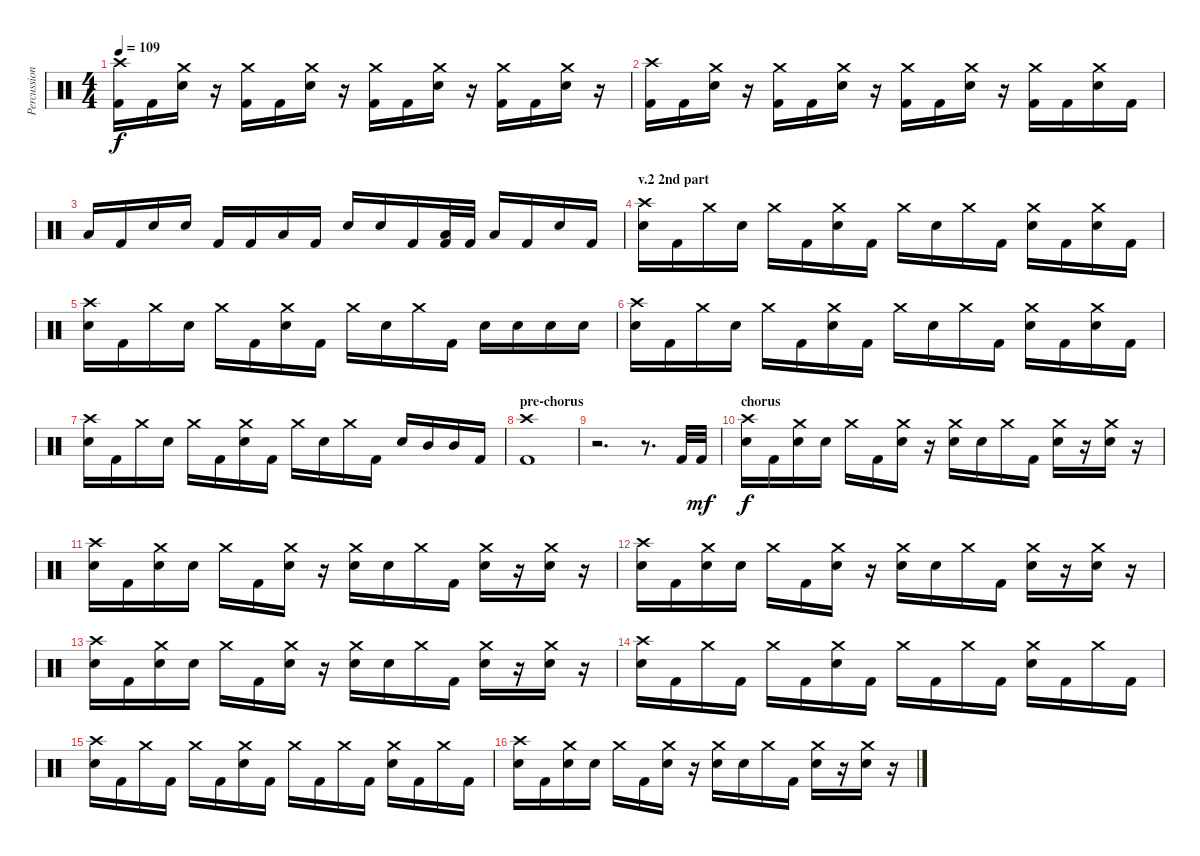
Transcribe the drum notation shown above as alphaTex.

\track ("Percussion" "Percussion") {instrument percussion}
\staff {score}
\articulation defaults
\ts (4 4)
\tempo 109
\clef neutral
\ks c
("Crash high (hit)" "Kick (hit) 2").16{dy f} "Kick (hit) 2".16 ("Crash medium (hit)" "Electric Snare (hit)").16 r.16 ("Crash medium (hit)" "Kick (hit) 2").16 "Kick (hit) 2".16 ("Crash medium (hit)" "Electric Snare (hit)").16 r.16 ("Crash medium (hit)" "Kick (hit) 2").16 "Kick (hit) 2".16 ("Crash medium (hit)" "Electric Snare (hit)").16 r.16 ("Crash medium (hit)" "Kick (hit) 2").16 "Kick (hit) 2".16 ("Crash medium (hit)" "Electric Snare (hit)").16 r.16 |
("Crash high (hit)" "Kick (hit) 2").16 "Kick (hit) 2".16 ("Crash medium (hit)" "Electric Snare (hit)").16 r.16 ("Crash medium (hit)" "Kick (hit) 2").16 "Kick (hit) 2".16 ("Crash medium (hit)" "Electric Snare (hit)").16 r.16 ("Crash medium (hit)" "Kick (hit) 2").16 "Kick (hit) 2".16 ("Crash medium (hit)" "Electric Snare (hit)").16 r.16 ("Crash medium (hit)" "Kick (hit) 2").16 "Kick (hit) 2".16 ("Crash medium (hit)" "Electric Snare (hit)").16 "Kick (hit) 2".16 |
"Low Tom (hit)".16 "Kick (hit) 2".16 "Electric Snare (hit)".16 "Electric Snare (hit)".16 "Kick (hit) 2".16 "Kick (hit) 2".16 "Low Tom (hit)".16 "Kick (hit) 2".16 "Electric Snare (hit)".16 "Electric Snare (hit)".16 "Kick (hit) 2".16 ("Low Tom (hit)" "Kick (hit) 2").32 "Kick (hit) 2".32 "Low Tom (hit)".16 "Kick (hit) 2".16 "Electric Snare (hit)".16 "Kick (hit) 2".16 |
\section ("" "v.2 2nd part")
("Crash high (hit)" "Electric Snare (hit)").16 "Kick (hit) 2".16 "Crash medium (hit)".16 "Electric Snare (hit)".16 "Crash medium (hit)".16 "Kick (hit) 2".16 ("Crash medium (hit)" "Electric Snare (hit)").16 "Kick (hit) 2".16 "Crash medium (hit)".16 "Electric Snare (hit)".16 "Crash medium (hit)".16 "Kick (hit) 2".16 ("Crash medium (hit)" "Electric Snare (hit)").16 "Kick (hit) 2".16 ("Crash medium (hit)" "Electric Snare (hit)").16 "Kick (hit) 2".16 |
("Crash high (hit)" "Electric Snare (hit)").16 "Kick (hit) 2".16 "Crash medium (hit)".16 "Electric Snare (hit)".16 "Crash medium (hit)".16 "Kick (hit) 2".16 ("Crash medium (hit)" "Electric Snare (hit)").16 "Kick (hit) 2".16 "Crash medium (hit)".16 "Electric Snare (hit)".16 "Crash medium (hit)".16 "Kick (hit) 2".16 "Electric Snare (hit)".16 "Electric Snare (hit)".16 "Electric Snare (hit)".16 "Electric Snare (hit)".16 |
("Crash high (hit)" "Electric Snare (hit)").16 "Kick (hit) 2".16 "Crash medium (hit)".16 "Electric Snare (hit)".16 "Crash medium (hit)".16 "Kick (hit) 2".16 ("Crash medium (hit)" "Electric Snare (hit)").16 "Kick (hit) 2".16 "Crash medium (hit)".16 "Electric Snare (hit)".16 "Crash medium (hit)".16 "Kick (hit) 2".16 ("Crash medium (hit)" "Electric Snare (hit)").16 "Kick (hit) 2".16 ("Crash medium (hit)" "Electric Snare (hit)").16 "Kick (hit) 2".16 |
("Crash high (hit)" "Electric Snare (hit)").16 "Kick (hit) 2".16 "Crash medium (hit)".16 "Electric Snare (hit)".16 "Crash medium (hit)".16 "Kick (hit) 2".16 ("Crash medium (hit)" "Electric Snare (hit)").16 "Kick (hit) 2".16 "Crash medium (hit)".16 "Electric Snare (hit)".16 "Crash medium (hit)".16 "Kick (hit) 2".16 "Electric Snare (hit)".16 "Mid Tom (hit)".16 "Mid Tom (hit)".16 "Kick (hit) 2".16 |
\section ("" "pre-chorus")
("Crash high (hit)" "Kick (hit) 2").1 |
r.2{d} r.8{d} "Kick (hit) 2".32 "Kick (hit) 2".32{dy mf} |
\section ("" "chorus")
("Crash high (hit)" "Electric Snare (hit)").16{dy f} "Kick (hit) 2".16 ("Crash medium (hit)" "Electric Snare (hit)").16 "Electric Snare (hit)".16 "Crash medium (hit)".16 "Kick (hit) 2".16 ("Crash medium (hit)" "Electric Snare (hit)").16 r.16 ("Crash medium (hit)" "Electric Snare (hit)").16 "Electric Snare (hit)".16 "Crash medium (hit)".16 "Kick (hit) 2".16 ("Crash medium (hit)" "Electric Snare (hit)").16 r.16 ("Crash medium (hit)" "Electric Snare (hit)").16 r.16 |
("Crash high (hit)" "Electric Snare (hit)").16 "Kick (hit) 2".16 ("Crash medium (hit)" "Electric Snare (hit)").16 "Electric Snare (hit)".16 "Crash medium (hit)".16 "Kick (hit) 2".16 ("Crash medium (hit)" "Electric Snare (hit)").16 r.16 ("Crash medium (hit)" "Electric Snare (hit)").16 "Electric Snare (hit)".16 "Crash medium (hit)".16 "Kick (hit) 2".16 ("Crash medium (hit)" "Electric Snare (hit)").16 r.16 ("Crash medium (hit)" "Electric Snare (hit)").16 r.16 |
("Crash high (hit)" "Electric Snare (hit)").16 "Kick (hit) 2".16 ("Crash medium (hit)" "Electric Snare (hit)").16 "Electric Snare (hit)".16 "Crash medium (hit)".16 "Kick (hit) 2".16 ("Crash medium (hit)" "Electric Snare (hit)").16 r.16 ("Crash medium (hit)" "Electric Snare (hit)").16 "Electric Snare (hit)".16 "Crash medium (hit)".16 "Kick (hit) 2".16 ("Crash medium (hit)" "Electric Snare (hit)").16 r.16 ("Crash medium (hit)" "Electric Snare (hit)").16 r.16 |
("Crash high (hit)" "Electric Snare (hit)").16 "Kick (hit) 2".16 ("Crash medium (hit)" "Electric Snare (hit)").16 "Electric Snare (hit)".16 "Crash medium (hit)".16 "Kick (hit) 2".16 ("Crash medium (hit)" "Electric Snare (hit)").16 r.16 ("Crash medium (hit)" "Electric Snare (hit)").16 "Electric Snare (hit)".16 "Crash medium (hit)".16 "Kick (hit) 2".16 ("Crash medium (hit)" "Electric Snare (hit)").16 r.16 ("Crash medium (hit)" "Electric Snare (hit)").16 r.16 |
("Crash high (hit)" "Electric Snare (hit)").16 "Kick (hit) 2".16 "Crash medium (hit)".16 "Kick (hit) 2".16 "Crash medium (hit)".16 "Kick (hit) 2".16 ("Crash medium (hit)" "Electric Snare (hit)").16 "Kick (hit) 2".16 "Crash medium (hit)".16 "Kick (hit) 2".16 "Crash medium (hit)".16 "Kick (hit) 2".16 ("Crash medium (hit)" "Electric Snare (hit)").16 "Kick (hit) 2".16 "Crash medium (hit)".16 "Kick (hit) 2".16 |
("Crash high (hit)" "Electric Snare (hit)").16 "Kick (hit) 2".16 "Crash medium (hit)".16 "Kick (hit) 2".16 "Crash medium (hit)".16 "Kick (hit) 2".16 ("Crash medium (hit)" "Electric Snare (hit)").16 "Kick (hit) 2".16 "Crash medium (hit)".16 "Kick (hit) 2".16 "Crash medium (hit)".16 "Kick (hit) 2".16 ("Crash medium (hit)" "Electric Snare (hit)").16 "Kick (hit) 2".16 "Crash medium (hit)".16 "Kick (hit) 2".16 |
("Crash high (hit)" "Electric Snare (hit)").16 "Kick (hit) 2".16 ("Crash medium (hit)" "Electric Snare (hit)").16 "Electric Snare (hit)".16 "Crash medium (hit)".16 "Kick (hit) 2".16 ("Crash medium (hit)" "Electric Snare (hit)").16 r.16 ("Crash medium (hit)" "Electric Snare (hit)").16 "Electric Snare (hit)".16 "Crash medium (hit)".16 "Kick (hit) 2".16 ("Crash medium (hit)" "Electric Snare (hit)").16 r.16 ("Crash medium (hit)" "Electric Snare (hit)").16 r.16
